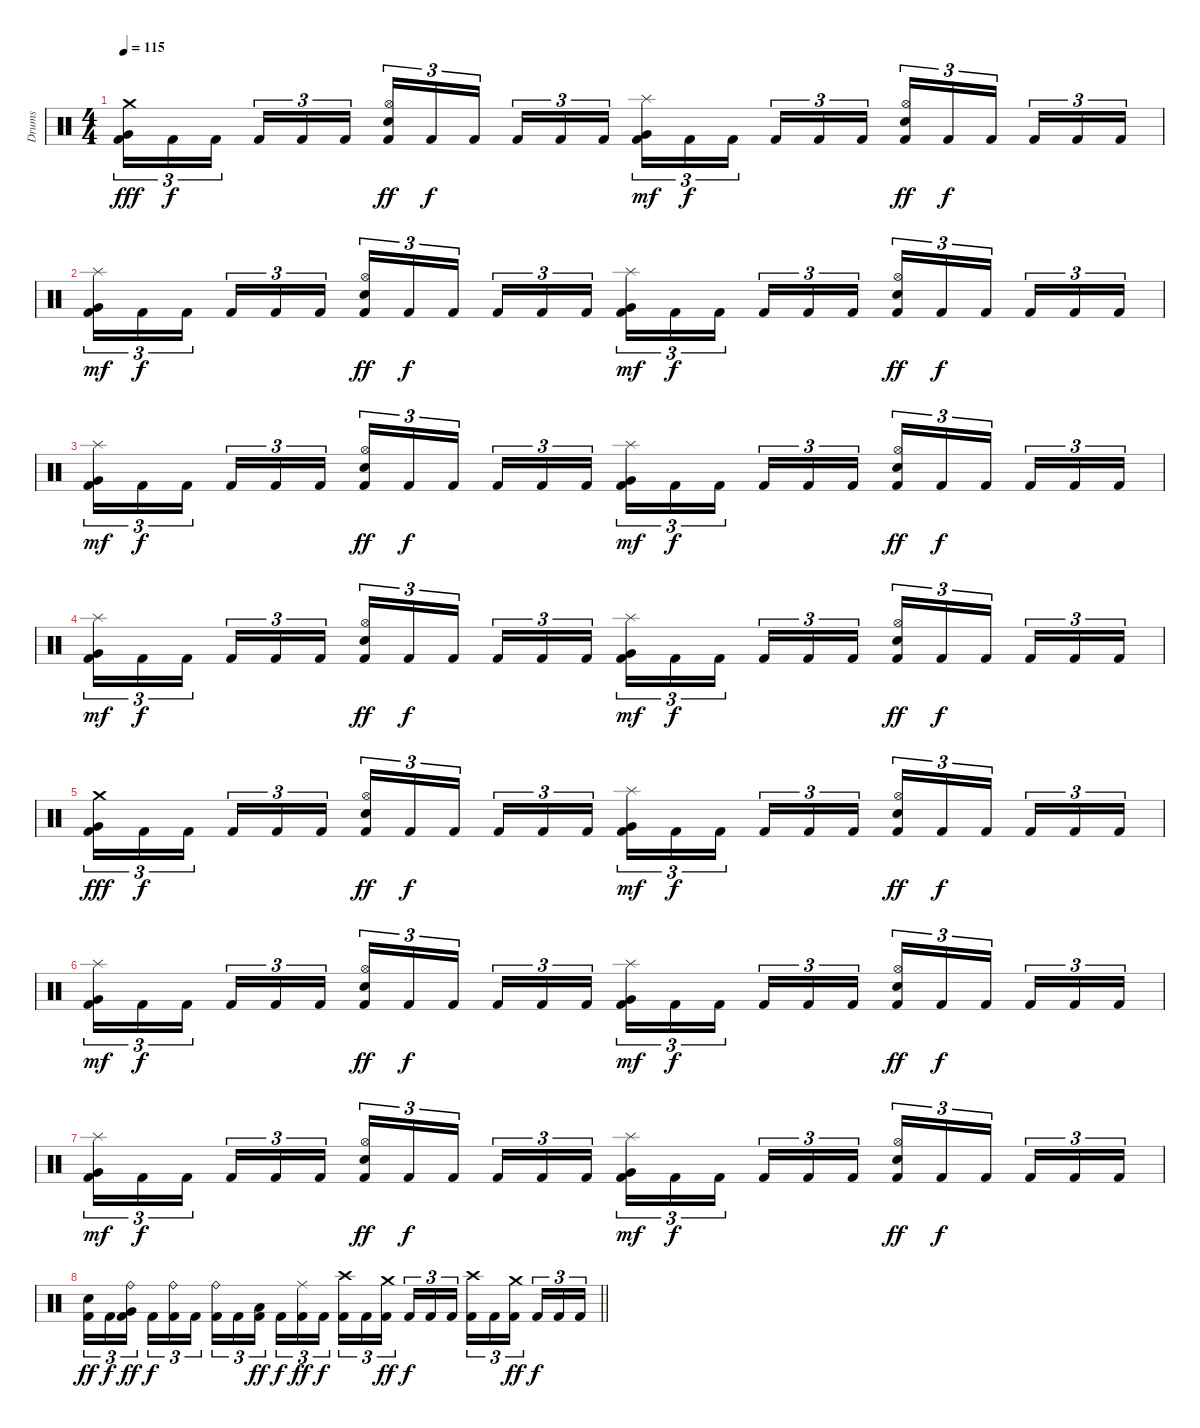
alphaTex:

\track ("Drums" "Drums") {instrument percussion}
\staff {score}
\articulation defaults
\ts (4 4)
\tempo 115
\clef neutral
\ks c
("Crash medium (hit)" "Very Low Tom (hit)" "Kick (hit) 2").16{tu (3 2) dy fff} "Kick (hit) 2".16{tu (3 2) dy f} "Kick (hit) 2".16{tu (3 2) beam splitsecondary} "Kick (hit) 2".16{tu (3 2)} "Kick (hit) 2".16{tu (3 2)} "Kick (hit) 2".16{tu (3 2)} ("Hi-Hat (open)" "Snare (hit) 2" "Kick (hit) 2").16{tu (3 2) dy ff} "Kick (hit) 2".16{tu (3 2) dy f} "Kick (hit) 2".16{tu (3 2) beam splitsecondary} "Kick (hit) 2".16{tu (3 2)} "Kick (hit) 2".16{tu (3 2)} "Kick (hit) 2".16{tu (3 2)} ("Splash (hit)" "Very Low Tom (hit)" "Kick (hit) 2").16{tu (3 2) dy mf} "Kick (hit) 2".16{tu (3 2) dy f} "Kick (hit) 2".16{tu (3 2) beam splitsecondary} "Kick (hit) 2".16{tu (3 2)} "Kick (hit) 2".16{tu (3 2)} "Kick (hit) 2".16{tu (3 2)} ("Hi-Hat (open)" "Snare (hit) 2" "Kick (hit) 2").16{tu (3 2) dy ff} "Kick (hit) 2".16{tu (3 2) dy f} "Kick (hit) 2".16{tu (3 2) beam splitsecondary} "Kick (hit) 2".16{tu (3 2)} "Kick (hit) 2".16{tu (3 2)} "Kick (hit) 2".16{tu (3 2)} |
("Splash (hit)" "Very Low Tom (hit)" "Kick (hit) 2").16{tu (3 2) dy mf} "Kick (hit) 2".16{tu (3 2) dy f} "Kick (hit) 2".16{tu (3 2) beam splitsecondary} "Kick (hit) 2".16{tu (3 2)} "Kick (hit) 2".16{tu (3 2)} "Kick (hit) 2".16{tu (3 2)} ("Hi-Hat (open)" "Snare (hit) 2" "Kick (hit) 2").16{tu (3 2) dy ff} "Kick (hit) 2".16{tu (3 2) dy f} "Kick (hit) 2".16{tu (3 2) beam splitsecondary} "Kick (hit) 2".16{tu (3 2)} "Kick (hit) 2".16{tu (3 2)} "Kick (hit) 2".16{tu (3 2)} ("Splash (hit)" "Very Low Tom (hit)" "Kick (hit) 2").16{tu (3 2) dy mf} "Kick (hit) 2".16{tu (3 2) dy f} "Kick (hit) 2".16{tu (3 2) beam splitsecondary} "Kick (hit) 2".16{tu (3 2)} "Kick (hit) 2".16{tu (3 2)} "Kick (hit) 2".16{tu (3 2)} ("Hi-Hat (open)" "Snare (hit) 2" "Kick (hit) 2").16{tu (3 2) dy ff} "Kick (hit) 2".16{tu (3 2) dy f} "Kick (hit) 2".16{tu (3 2) beam splitsecondary} "Kick (hit) 2".16{tu (3 2)} "Kick (hit) 2".16{tu (3 2)} "Kick (hit) 2".16{tu (3 2)} |
("Splash (hit)" "Very Low Tom (hit)" "Kick (hit) 2").16{tu (3 2) dy mf} "Kick (hit) 2".16{tu (3 2) dy f} "Kick (hit) 2".16{tu (3 2) beam splitsecondary} "Kick (hit) 2".16{tu (3 2)} "Kick (hit) 2".16{tu (3 2)} "Kick (hit) 2".16{tu (3 2)} ("Hi-Hat (open)" "Snare (hit) 2" "Kick (hit) 2").16{tu (3 2) dy ff} "Kick (hit) 2".16{tu (3 2) dy f} "Kick (hit) 2".16{tu (3 2) beam splitsecondary} "Kick (hit) 2".16{tu (3 2)} "Kick (hit) 2".16{tu (3 2)} "Kick (hit) 2".16{tu (3 2)} ("Splash (hit)" "Very Low Tom (hit)" "Kick (hit) 2").16{tu (3 2) dy mf} "Kick (hit) 2".16{tu (3 2) dy f} "Kick (hit) 2".16{tu (3 2) beam splitsecondary} "Kick (hit) 2".16{tu (3 2)} "Kick (hit) 2".16{tu (3 2)} "Kick (hit) 2".16{tu (3 2)} ("Hi-Hat (open)" "Snare (hit) 2" "Kick (hit) 2").16{tu (3 2) dy ff} "Kick (hit) 2".16{tu (3 2) dy f} "Kick (hit) 2".16{tu (3 2) beam splitsecondary} "Kick (hit) 2".16{tu (3 2)} "Kick (hit) 2".16{tu (3 2)} "Kick (hit) 2".16{tu (3 2)} |
("Splash (hit)" "Very Low Tom (hit)" "Kick (hit) 2").16{tu (3 2) dy mf} "Kick (hit) 2".16{tu (3 2) dy f} "Kick (hit) 2".16{tu (3 2) beam splitsecondary} "Kick (hit) 2".16{tu (3 2)} "Kick (hit) 2".16{tu (3 2)} "Kick (hit) 2".16{tu (3 2)} ("Hi-Hat (open)" "Snare (hit) 2" "Kick (hit) 2").16{tu (3 2) dy ff} "Kick (hit) 2".16{tu (3 2) dy f} "Kick (hit) 2".16{tu (3 2) beam splitsecondary} "Kick (hit) 2".16{tu (3 2)} "Kick (hit) 2".16{tu (3 2)} "Kick (hit) 2".16{tu (3 2)} ("Splash (hit)" "Very Low Tom (hit)" "Kick (hit) 2").16{tu (3 2) dy mf} "Kick (hit) 2".16{tu (3 2) dy f} "Kick (hit) 2".16{tu (3 2) beam splitsecondary} "Kick (hit) 2".16{tu (3 2)} "Kick (hit) 2".16{tu (3 2)} "Kick (hit) 2".16{tu (3 2)} ("Hi-Hat (open)" "Snare (hit) 2" "Kick (hit) 2").16{tu (3 2) dy ff} "Kick (hit) 2".16{tu (3 2) dy f} "Kick (hit) 2".16{tu (3 2) beam splitsecondary} "Kick (hit) 2".16{tu (3 2)} "Kick (hit) 2".16{tu (3 2)} "Kick (hit) 2".16{tu (3 2)} |
("Crash medium (hit)" "Very Low Tom (hit)" "Kick (hit) 2").16{tu (3 2) dy fff} "Kick (hit) 2".16{tu (3 2) dy f} "Kick (hit) 2".16{tu (3 2) beam splitsecondary} "Kick (hit) 2".16{tu (3 2)} "Kick (hit) 2".16{tu (3 2)} "Kick (hit) 2".16{tu (3 2)} ("Hi-Hat (open)" "Snare (hit) 2" "Kick (hit) 2").16{tu (3 2) dy ff} "Kick (hit) 2".16{tu (3 2) dy f} "Kick (hit) 2".16{tu (3 2) beam splitsecondary} "Kick (hit) 2".16{tu (3 2)} "Kick (hit) 2".16{tu (3 2)} "Kick (hit) 2".16{tu (3 2)} ("Splash (hit)" "Very Low Tom (hit)" "Kick (hit) 2").16{tu (3 2) dy mf} "Kick (hit) 2".16{tu (3 2) dy f} "Kick (hit) 2".16{tu (3 2) beam splitsecondary} "Kick (hit) 2".16{tu (3 2)} "Kick (hit) 2".16{tu (3 2)} "Kick (hit) 2".16{tu (3 2)} ("Hi-Hat (open)" "Snare (hit) 2" "Kick (hit) 2").16{tu (3 2) dy ff} "Kick (hit) 2".16{tu (3 2) dy f} "Kick (hit) 2".16{tu (3 2) beam splitsecondary} "Kick (hit) 2".16{tu (3 2)} "Kick (hit) 2".16{tu (3 2)} "Kick (hit) 2".16{tu (3 2)} |
("Splash (hit)" "Very Low Tom (hit)" "Kick (hit) 2").16{tu (3 2) dy mf} "Kick (hit) 2".16{tu (3 2) dy f} "Kick (hit) 2".16{tu (3 2) beam splitsecondary} "Kick (hit) 2".16{tu (3 2)} "Kick (hit) 2".16{tu (3 2)} "Kick (hit) 2".16{tu (3 2)} ("Hi-Hat (open)" "Snare (hit) 2" "Kick (hit) 2").16{tu (3 2) dy ff} "Kick (hit) 2".16{tu (3 2) dy f} "Kick (hit) 2".16{tu (3 2) beam splitsecondary} "Kick (hit) 2".16{tu (3 2)} "Kick (hit) 2".16{tu (3 2)} "Kick (hit) 2".16{tu (3 2)} ("Splash (hit)" "Very Low Tom (hit)" "Kick (hit) 2").16{tu (3 2) dy mf} "Kick (hit) 2".16{tu (3 2) dy f} "Kick (hit) 2".16{tu (3 2) beam splitsecondary} "Kick (hit) 2".16{tu (3 2)} "Kick (hit) 2".16{tu (3 2)} "Kick (hit) 2".16{tu (3 2)} ("Hi-Hat (open)" "Snare (hit) 2" "Kick (hit) 2").16{tu (3 2) dy ff} "Kick (hit) 2".16{tu (3 2) dy f} "Kick (hit) 2".16{tu (3 2) beam splitsecondary} "Kick (hit) 2".16{tu (3 2)} "Kick (hit) 2".16{tu (3 2)} "Kick (hit) 2".16{tu (3 2)} |
("Splash (hit)" "Very Low Tom (hit)" "Kick (hit) 2").16{tu (3 2) dy mf} "Kick (hit) 2".16{tu (3 2) dy f} "Kick (hit) 2".16{tu (3 2) beam splitsecondary} "Kick (hit) 2".16{tu (3 2)} "Kick (hit) 2".16{tu (3 2)} "Kick (hit) 2".16{tu (3 2)} ("Hi-Hat (open)" "Snare (hit) 2" "Kick (hit) 2").16{tu (3 2) dy ff} "Kick (hit) 2".16{tu (3 2) dy f} "Kick (hit) 2".16{tu (3 2) beam splitsecondary} "Kick (hit) 2".16{tu (3 2)} "Kick (hit) 2".16{tu (3 2)} "Kick (hit) 2".16{tu (3 2)} ("Splash (hit)" "Very Low Tom (hit)" "Kick (hit) 2").16{tu (3 2) dy mf} "Kick (hit) 2".16{tu (3 2) dy f} "Kick (hit) 2".16{tu (3 2) beam splitsecondary} "Kick (hit) 2".16{tu (3 2)} "Kick (hit) 2".16{tu (3 2)} "Kick (hit) 2".16{tu (3 2)} ("Hi-Hat (open)" "Snare (hit) 2" "Kick (hit) 2").16{tu (3 2) dy ff} "Kick (hit) 2".16{tu (3 2) dy f} "Kick (hit) 2".16{tu (3 2) beam splitsecondary} "Kick (hit) 2".16{tu (3 2)} "Kick (hit) 2".16{tu (3 2)} "Kick (hit) 2".16{tu (3 2)} |
\barLineRight lightlight
("Snare (hit) 2" "Kick (hit) 2").16{tu (3 2) dy ff} "Kick (hit) 2".16{tu (3 2) dy f} ("Ride (bell)" "Very Low Tom (hit)" "Kick (hit) 2").16{tu (3 2) dy ff beam splitsecondary} "Kick (hit) 2".16{tu (3 2) dy f} ("Ride (bell)" "Kick (hit) 2").16{tu (3 2)} "Kick (hit) 2".16{tu (3 2)} ("Ride (bell)" "Kick (hit) 2").16{tu (3 2)} "Kick (hit) 2".16{tu (3 2)} ("Low Floor Tom (hit)" "Kick (hit) 2").16{tu (3 2) dy ff beam splitsecondary} "Kick (hit) 2".16{tu (3 2) dy f} ("Ride (middle)" "Kick (hit) 2").16{tu (3 2) dy ff} "Kick (hit) 2".16{tu (3 2) dy f} ("Crash high (hit)" "Kick (hit) 2").16{tu (3 2)} "Kick (hit) 2".16{tu (3 2)} ("Crash medium (hit)" "Kick (hit) 2").16{tu (3 2) dy ff beam splitsecondary} "Kick (hit) 2".16{tu (3 2) dy f} "Kick (hit) 2".16{tu (3 2)} "Kick (hit) 2".16{tu (3 2)} ("Crash high (hit)" "Kick (hit) 2").16{tu (3 2)} "Kick (hit) 2".16{tu (3 2)} ("Crash medium (hit)" "Kick (hit) 2").16{tu (3 2) dy ff beam splitsecondary} "Kick (hit) 2".16{tu (3 2) dy f} "Kick (hit) 2".16{tu (3 2)} "Kick (hit) 2".16{tu (3 2)}
